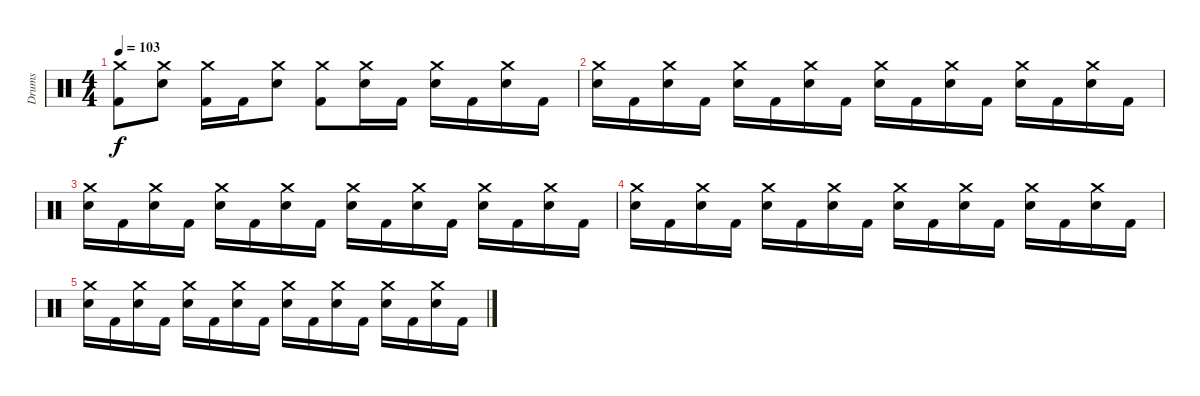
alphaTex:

\track ("Drums" "Drums") {instrument percussion}
\staff {score}
\articulation defaults
\ts (4 4)
\tempo 103
\clef neutral
\ks c
("Crash medium (hit)" "Kick (hit) 2").8{dy f} ("Crash medium (hit)" "Electric Snare (hit)").8 ("Crash medium (hit)" "Kick (hit) 2").16 "Kick (hit) 2".16 ("Crash medium (hit)" "Electric Snare (hit)").8 ("Crash medium (hit)" "Kick (hit) 2").8 ("Crash medium (hit)" "Electric Snare (hit)").16 "Kick (hit) 2".16 ("Crash medium (hit)" "Electric Snare (hit)").16 "Kick (hit) 2".16 ("Crash medium (hit)" "Electric Snare (hit)").16 "Kick (hit) 2".16 |
("Crash medium (hit)" "Electric Snare (hit)").16 "Kick (hit) 2".16 ("Crash medium (hit)" "Electric Snare (hit)").16 "Kick (hit) 2".16 ("Crash medium (hit)" "Electric Snare (hit)").16 "Kick (hit) 2".16 ("Crash medium (hit)" "Electric Snare (hit)").16 "Kick (hit) 2".16 ("Crash medium (hit)" "Electric Snare (hit)").16 "Kick (hit) 2".16 ("Crash medium (hit)" "Electric Snare (hit)").16 "Kick (hit) 2".16 ("Crash medium (hit)" "Electric Snare (hit)").16 "Kick (hit) 2".16 ("Crash medium (hit)" "Electric Snare (hit)").16 "Kick (hit) 2".16 |
("Crash medium (hit)" "Electric Snare (hit)").16 "Kick (hit) 2".16 ("Crash medium (hit)" "Electric Snare (hit)").16 "Kick (hit) 2".16 ("Crash medium (hit)" "Electric Snare (hit)").16 "Kick (hit) 2".16 ("Crash medium (hit)" "Electric Snare (hit)").16 "Kick (hit) 2".16 ("Crash medium (hit)" "Electric Snare (hit)").16 "Kick (hit) 2".16 ("Crash medium (hit)" "Electric Snare (hit)").16 "Kick (hit) 2".16 ("Crash medium (hit)" "Electric Snare (hit)").16 "Kick (hit) 2".16 ("Crash medium (hit)" "Electric Snare (hit)").16 "Kick (hit) 2".16 |
("Crash medium (hit)" "Electric Snare (hit)").16 "Kick (hit) 2".16 ("Crash medium (hit)" "Electric Snare (hit)").16 "Kick (hit) 2".16 ("Crash medium (hit)" "Electric Snare (hit)").16 "Kick (hit) 2".16 ("Crash medium (hit)" "Electric Snare (hit)").16 "Kick (hit) 2".16 ("Crash medium (hit)" "Electric Snare (hit)").16 "Kick (hit) 2".16 ("Crash medium (hit)" "Electric Snare (hit)").16 "Kick (hit) 2".16 ("Crash medium (hit)" "Electric Snare (hit)").16 "Kick (hit) 2".16 ("Crash medium (hit)" "Electric Snare (hit)").16 "Kick (hit) 2".16 |
("Crash medium (hit)" "Electric Snare (hit)").16 "Kick (hit) 2".16 ("Crash medium (hit)" "Electric Snare (hit)").16 "Kick (hit) 2".16 ("Crash medium (hit)" "Electric Snare (hit)").16 "Kick (hit) 2".16 ("Crash medium (hit)" "Electric Snare (hit)").16 "Kick (hit) 2".16 ("Crash medium (hit)" "Electric Snare (hit)").16 "Kick (hit) 2".16 ("Crash medium (hit)" "Electric Snare (hit)").16 "Kick (hit) 2".16 ("Crash medium (hit)" "Electric Snare (hit)").16 "Kick (hit) 2".16 ("Crash medium (hit)" "Electric Snare (hit)").16 "Kick (hit) 2".16
